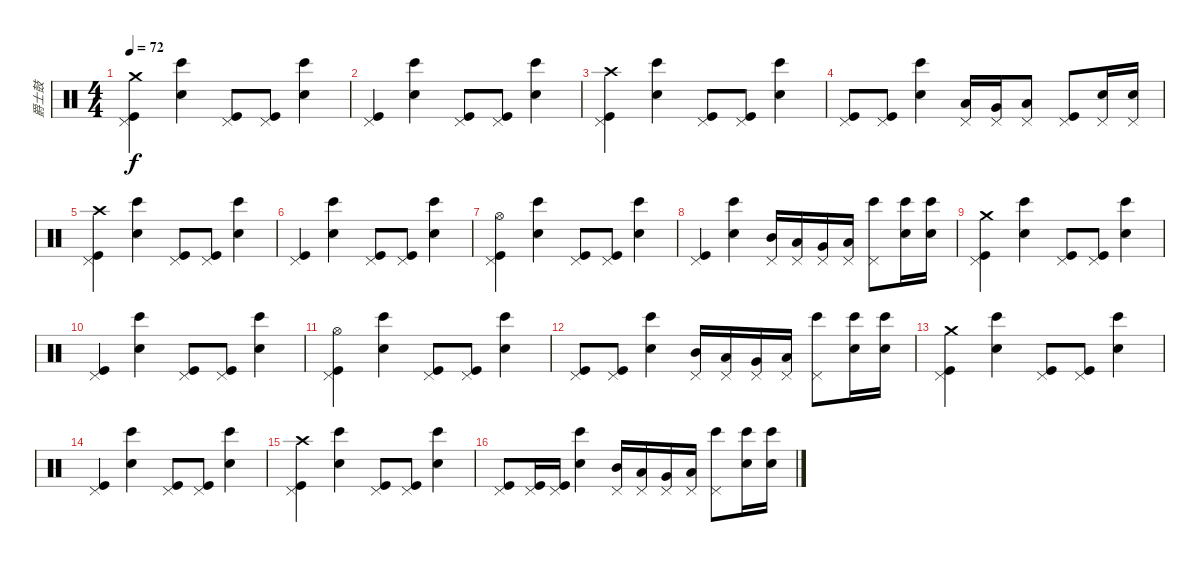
\track ("爵士鼓" "爵士鼓") {instrument percussion}
\staff {score}
\articulation defaults
\ts (4 4)
\tempo 72
\clef neutral
\ks c
("Pedal Hi-Hat (hit)" "Kick (hit)" "Crash medium (hit)").4{dy f} ("Bongo High (hit)" "Electric Snare (hit)").4 ("Pedal Hi-Hat (hit)" "Kick (hit)").8 ("Pedal Hi-Hat (hit)" "Kick (hit)").8 ("Bongo High (hit)" "Electric Snare (hit)").4 |
("Pedal Hi-Hat (hit)" "Kick (hit)").4 ("Bongo High (hit)" "Electric Snare (hit)").4 ("Pedal Hi-Hat (hit)" "Kick (hit)").8 ("Pedal Hi-Hat (hit)" "Kick (hit)").8 ("Bongo High (hit)" "Electric Snare (hit)").4 |
("Pedal Hi-Hat (hit)" "Kick (hit)" "Crash high (hit)").4 ("Bongo High (hit)" "Electric Snare (hit)").4 ("Pedal Hi-Hat (hit)" "Kick (hit)").8 ("Pedal Hi-Hat (hit)" "Kick (hit)").8 ("Bongo High (hit)" "Electric Snare (hit)").4 |
("Pedal Hi-Hat (hit)" "Kick (hit)").8 ("Pedal Hi-Hat (hit)" "Kick (hit)").8 ("Bongo High (hit)" "Electric Snare (hit)").4 ("Pedal Hi-Hat (hit)" "Low Tom (hit)").16 ("Pedal Hi-Hat (hit)" "Very Low Tom (hit)").16 ("Pedal Hi-Hat (hit)" "Low Floor Tom (hit)").8 ("Pedal Hi-Hat (hit)" "Kick (hit)").8 ("Pedal Hi-Hat (hit)" "Snare (hit) 2").16 ("Pedal Hi-Hat (hit)" "Snare (hit) 2").16 |
("Pedal Hi-Hat (hit)" "Kick (hit)" "Crash high (hit)").4 ("Bongo High (hit)" "Electric Snare (hit)").4 ("Pedal Hi-Hat (hit)" "Kick (hit)").8 ("Pedal Hi-Hat (hit)" "Kick (hit)").8 ("Bongo High (hit)" "Electric Snare (hit)").4 |
("Pedal Hi-Hat (hit)" "Kick (hit)").4 ("Bongo High (hit)" "Electric Snare (hit)").4 ("Pedal Hi-Hat (hit)" "Kick (hit)").8 ("Pedal Hi-Hat (hit)" "Kick (hit)").8 ("Bongo High (hit)" "Electric Snare (hit)").4 |
("Pedal Hi-Hat (hit)" "Kick (hit)" "Hi-Hat (open)").4 ("Bongo High (hit)" "Electric Snare (hit)").4 ("Pedal Hi-Hat (hit)" "Kick (hit)").8 ("Pedal Hi-Hat (hit)" "Kick (hit)").8 ("Bongo High (hit)" "Electric Snare (hit)").4 |
("Pedal Hi-Hat (hit)" "Kick (hit)").4 ("Bongo High (hit)" "Electric Snare (hit)").4 ("Pedal Hi-Hat (hit)" "Mid Tom (hit)").16 ("Pedal Hi-Hat (hit)" "Low Tom (hit)").16 ("Pedal Hi-Hat (hit)" "Very Low Tom (hit)").16 ("Pedal Hi-Hat (hit)" "Low Floor Tom (hit)").16 ("Pedal Hi-Hat (hit)" "Bongo High (hit)").8 ("Bongo High (hit)" "Electric Snare (hit)").16 ("Bongo High (hit)" "Electric Snare (hit)").16 |
("Pedal Hi-Hat (hit)" "Kick (hit)" "Crash medium (hit)").4 ("Bongo High (hit)" "Hand Clap (hit)").4 ("Pedal Hi-Hat (hit)" "Kick (hit)").8 ("Pedal Hi-Hat (hit)" "Kick (hit)").8 ("Bongo High (hit)" "Hand Clap (hit)").4 |
("Pedal Hi-Hat (hit)" "Kick (hit)").4 ("Bongo High (hit)" "Hand Clap (hit)").4 ("Pedal Hi-Hat (hit)" "Kick (hit)").8 ("Pedal Hi-Hat (hit)" "Kick (hit)").8 ("Bongo High (hit)" "Hand Clap (hit)").4 |
("Pedal Hi-Hat (hit)" "Kick (hit)" "Hi-Hat (open)").4 ("Bongo High (hit)" "Hand Clap (hit)").4 ("Pedal Hi-Hat (hit)" "Kick (hit)").8 ("Pedal Hi-Hat (hit)" "Kick (hit)").8 ("Bongo High (hit)" "Hand Clap (hit)").4 |
("Pedal Hi-Hat (hit)" "Kick (hit)").8 ("Pedal Hi-Hat (hit)" "Kick (hit)").8 ("Bongo High (hit)" "Hand Clap (hit)").4 ("Pedal Hi-Hat (hit)" "Mid Tom (hit)").16 ("Pedal Hi-Hat (hit)" "Low Tom (hit)").16 ("Pedal Hi-Hat (hit)" "Very Low Tom (hit)").16 ("Pedal Hi-Hat (hit)" "Low Floor Tom (hit)").16 ("Pedal Hi-Hat (hit)" "Bongo High (hit)").8 ("Bongo High (hit)" "Electric Snare (hit)").16 ("Bongo High (hit)" "Electric Snare (hit)").16 |
("Pedal Hi-Hat (hit)" "Kick (hit)" "Crash medium (hit)").4 ("Bongo High (hit)" "Hand Clap (hit)").4 ("Pedal Hi-Hat (hit)" "Kick (hit)").8 ("Pedal Hi-Hat (hit)" "Kick (hit)").8 ("Bongo High (hit)" "Hand Clap (hit)").4 |
("Pedal Hi-Hat (hit)" "Kick (hit)").4 ("Bongo High (hit)" "Hand Clap (hit)").4 ("Pedal Hi-Hat (hit)" "Kick (hit)").8 ("Pedal Hi-Hat (hit)" "Kick (hit)").8 ("Bongo High (hit)" "Hand Clap (hit)").4 |
("Pedal Hi-Hat (hit)" "Kick (hit)" "Crash high (hit)").4 ("Bongo High (hit)" "Hand Clap (hit)").4 ("Pedal Hi-Hat (hit)" "Kick (hit)").8 ("Pedal Hi-Hat (hit)" "Kick (hit)").8 ("Bongo High (hit)" "Hand Clap (hit)").4 |
("Pedal Hi-Hat (hit)" "Kick (hit)").8 ("Pedal Hi-Hat (hit)" "Kick (hit)").16 ("Pedal Hi-Hat (hit)" "Kick (hit)").16 ("Bongo High (hit)" "Hand Clap (hit)").4 ("Pedal Hi-Hat (hit)" "Mid Tom (hit)").16 ("Pedal Hi-Hat (hit)" "Low Tom (hit)").16 ("Pedal Hi-Hat (hit)" "Very Low Tom (hit)").16 ("Pedal Hi-Hat (hit)" "Low Floor Tom (hit)").16 ("Pedal Hi-Hat (hit)" "Bongo High (hit)").8 ("Bongo High (hit)" "Electric Snare (hit)").16 ("Bongo High (hit)" "Electric Snare (hit)").16
